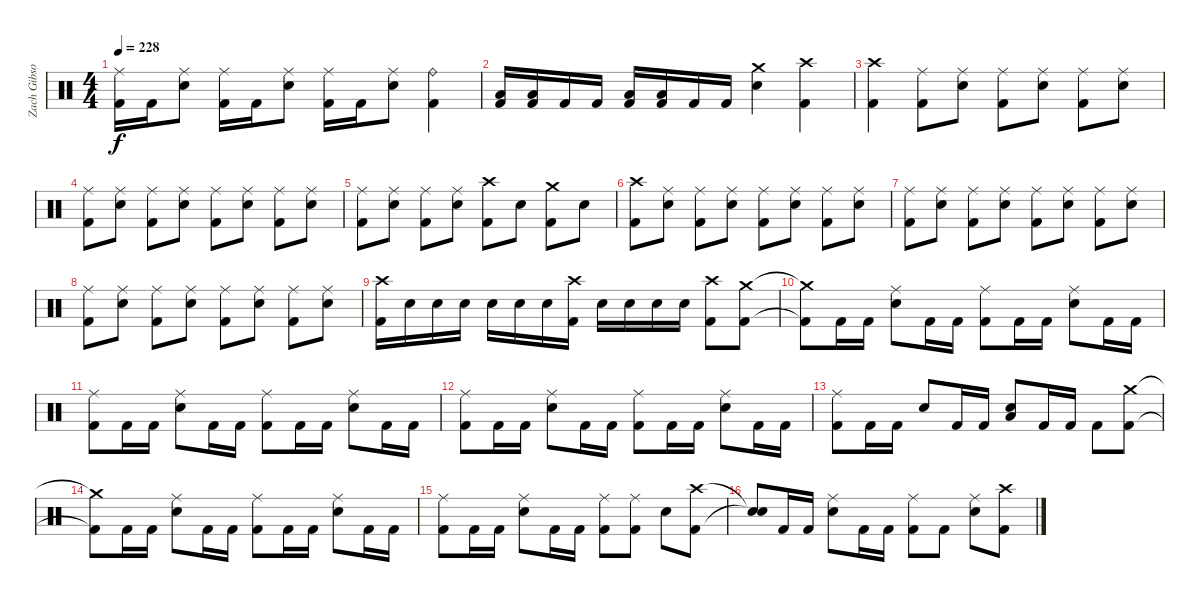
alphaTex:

\track ("Zach Gibson (Ex-Drums)" "Zach Gibso") {instrument percussion}
\staff {score}
\articulation defaults
\ts (4 4)
\tempo 228
\clef neutral
\ks c
("Ride (middle)" "Kick (hit) 2").16{dy f} "Kick (hit) 2".16 ("Ride (middle)" "Snare (hit) 2").8 ("Ride (middle)" "Kick (hit) 2").16 "Kick (hit) 2".16 ("Ride (middle)" "Snare (hit) 2").8 ("Ride (middle)" "Kick (hit) 2").16 "Kick (hit) 2".16 ("Ride (middle)" "Snare (hit) 2").8 ("Ride (bell)" "Kick (hit) 2").4 |
("Low Floor Tom (hit)" "Kick (hit) 2").16 ("Low Floor Tom (hit)" "Kick (hit) 2").16 "Kick (hit) 2".16 "Kick (hit) 2".16 ("Low Floor Tom (hit)" "Kick (hit) 2").16 ("Low Floor Tom (hit)" "Kick (hit) 2").16 "Kick (hit) 2".16 "Kick (hit) 2".16 ("Crash medium (hit)" "Snare (hit) 2").4 ("Crash high (hit)" "Kick (hit) 2").4 |
("Crash high (hit)" "Kick (hit) 2").4 ("Ride (middle)" "Kick (hit) 2").8 ("Ride (middle)" "Snare (hit) 2").8 ("Ride (middle)" "Kick (hit) 2").8 ("Ride (middle)" "Snare (hit) 2").8 ("Ride (middle)" "Kick (hit) 2").8 ("Ride (middle)" "Snare (hit) 2").8 |
("Ride (middle)" "Kick (hit) 2").8 ("Ride (middle)" "Snare (hit) 2").8 ("Ride (middle)" "Kick (hit) 2").8 ("Ride (middle)" "Snare (hit) 2").8 ("Ride (middle)" "Kick (hit) 2").8 ("Ride (middle)" "Snare (hit) 2").8 ("Ride (middle)" "Kick (hit) 2").8 ("Ride (middle)" "Snare (hit) 2").8 |
("Ride (middle)" "Kick (hit) 2").8 ("Ride (middle)" "Snare (hit) 2").8 ("Ride (middle)" "Kick (hit) 2").8 ("Ride (middle)" "Snare (hit) 2").8 ("Crash high (hit)" "Kick (hit) 2").8 "Snare (hit) 2".8 ("Crash medium (hit)" "Kick (hit) 2").8 "Snare (hit) 2".8 |
("Crash high (hit)" "Kick (hit) 2").8 ("Ride (middle)" "Snare (hit) 2").8 ("Ride (middle)" "Kick (hit) 2").8 ("Ride (middle)" "Snare (hit) 2").8 ("Ride (middle)" "Kick (hit) 2").8 ("Ride (middle)" "Snare (hit) 2").8 ("Ride (middle)" "Kick (hit) 2").8 ("Ride (middle)" "Snare (hit) 2").8 |
("Ride (middle)" "Kick (hit) 2").8 ("Ride (middle)" "Snare (hit) 2").8 ("Ride (middle)" "Kick (hit) 2").8 ("Ride (middle)" "Snare (hit) 2").8 ("Ride (middle)" "Kick (hit) 2").8 ("Ride (middle)" "Snare (hit) 2").8 ("Ride (middle)" "Kick (hit) 2").8 ("Ride (middle)" "Snare (hit) 2").8 |
("Ride (middle)" "Kick (hit) 2").8 ("Ride (middle)" "Snare (hit) 2").8 ("Ride (middle)" "Kick (hit) 2").8 ("Ride (middle)" "Snare (hit) 2").8 ("Ride (middle)" "Kick (hit) 2").8 ("Ride (middle)" "Snare (hit) 2").8 ("Ride (middle)" "Kick (hit) 2").8 ("Ride (middle)" "Snare (hit) 2").8 |
("Crash high (hit)" "Kick (hit) 2").16 "Snare (hit) 2".16 "Snare (hit) 2".16 "Snare (hit) 2".16 "Snare (hit) 2".16 "Snare (hit) 2".16 "Snare (hit) 2".16 ("Crash high (hit)" "Kick (hit) 2").16 "Snare (hit) 2".16 "Snare (hit) 2".16 "Snare (hit) 2".16 "Snare (hit) 2".16 ("Crash high (hit)" "Kick (hit) 2").8 ("Crash medium (hit)" "Kick (hit) 2").8 |
("Crash medium (hit)"{t} "Kick (hit) 2"{t}).8 "Kick (hit) 2".16 "Kick (hit) 2".16 ("Ride (middle)" "Snare (hit) 2").8 "Kick (hit) 2".16 "Kick (hit) 2".16 ("Ride (middle)" "Kick (hit) 2").8 "Kick (hit) 2".16 "Kick (hit) 2".16 ("Ride (middle)" "Snare (hit) 2").8 "Kick (hit) 2".16 "Kick (hit) 2".16 |
("Ride (middle)" "Kick (hit) 2").8 "Kick (hit) 2".16 "Kick (hit) 2".16 ("Ride (middle)" "Snare (hit) 2").8 "Kick (hit) 2".16 "Kick (hit) 2".16 ("Kick (hit) 2" "Ride (middle)").8 "Kick (hit) 2".16 "Kick (hit) 2".16 ("Ride (middle)" "Snare (hit) 2").8 "Kick (hit) 2".16 "Kick (hit) 2".16 |
("Ride (middle)" "Kick (hit) 2").8 "Kick (hit) 2".16 "Kick (hit) 2".16 ("Ride (middle)" "Snare (hit) 2").8 "Kick (hit) 2".16 "Kick (hit) 2".16 ("Kick (hit) 2" "Ride (middle)").8 "Kick (hit) 2".16 "Kick (hit) 2".16 ("Ride (middle)" "Snare (hit) 2").8 "Kick (hit) 2".16 "Kick (hit) 2".16 |
("Ride (middle)" "Kick (hit) 2").8 "Kick (hit) 2".16 "Kick (hit) 2".16 "Snare (hit) 2".8 "Kick (hit) 2".16 "Kick (hit) 2".16 ("Low Floor Tom (hit)" "Snare (hit) 2").8 "Kick (hit) 2".16 "Kick (hit) 2".16 "Kick (hit) 2".8 ("Crash medium (hit)" "Kick (hit) 2").8 |
("Crash medium (hit)"{t} "Kick (hit) 2"{t}).8 "Kick (hit) 2".16 "Kick (hit) 2".16 ("Ride (middle)" "Snare (hit) 2").8 "Kick (hit) 2".16 "Kick (hit) 2".16 ("Ride (middle)" "Kick (hit) 2").8 "Kick (hit) 2".16 "Kick (hit) 2".16 ("Ride (middle)" "Snare (hit) 2").8 "Kick (hit) 2".16 "Kick (hit) 2".16 |
("Ride (middle)" "Kick (hit) 2").8 "Kick (hit) 2".16 "Kick (hit) 2".16 ("Ride (middle)" "Snare (hit) 2").8 "Kick (hit) 2".16 "Kick (hit) 2".16 ("Kick (hit) 2" "Ride (middle)").8 ("Ride (middle)" "Kick (hit) 2").8 "Snare (hit) 2".8 ("Crash high (hit)" "Kick (hit) 2").8 |
("Snare (hit)"{t} "Snare (hit)"{t}).8 "Kick (hit) 2".16 "Kick (hit) 2".16 ("Ride (middle)" "Snare (hit) 2").8 "Kick (hit) 2".16 "Kick (hit) 2".16 ("Ride (middle)" "Kick (hit) 2").8 "Kick (hit) 2".8 ("Ride (middle)" "Snare (hit) 2").8 ("Crash high (hit)" "Kick (hit) 2").8
